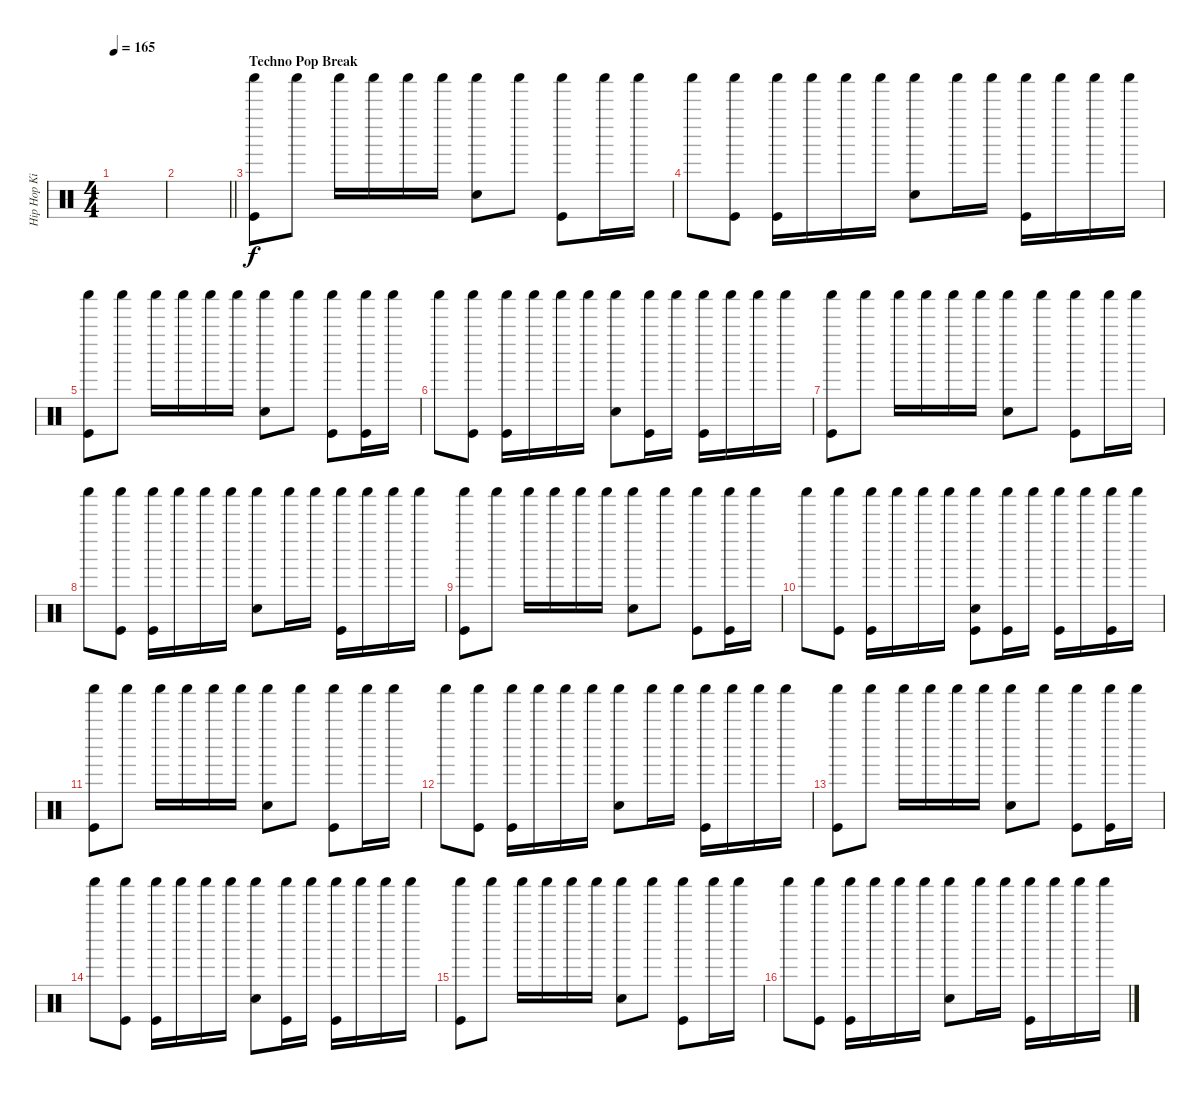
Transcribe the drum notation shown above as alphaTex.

\track ("Hip Hop Kit" "Hip Hop Ki") {instrument percussion}
\staff {score}
\articulation defaults
\ts (4 4)
\tempo 165
\clef neutral
\ks c
|
\barLineRight lightlight
|
\section ("" "Techno Pop Break")
("Shaker (hit)" "Kick (hit)").8 "Shaker (hit)".8 "Shaker (hit)".16 "Shaker (hit)".16 "Shaker (hit)".16 "Shaker (hit)".16 ("Shaker (hit)" "Snare (hit) 2").8 "Shaker (hit)".8 ("Shaker (hit)" "Kick (hit)").8 "Shaker (hit)".16 "Shaker (hit)".16 |
"Shaker (hit)".8 ("Shaker (hit)" "Kick (hit)").8 ("Shaker (hit)" "Kick (hit)").16 "Shaker (hit)".16 "Shaker (hit)".16 "Shaker (hit)".16 ("Shaker (hit)" "Snare (hit) 2").8 "Shaker (hit)".16 "Shaker (hit)".16 ("Shaker (hit)" "Kick (hit)").16 "Shaker (hit)".16 "Shaker (hit)".16 "Shaker (hit)".16 |
("Shaker (hit)" "Kick (hit)").8 "Shaker (hit)".8 "Shaker (hit)".16 "Shaker (hit)".16 "Shaker (hit)".16 "Shaker (hit)".16 ("Shaker (hit)" "Snare (hit) 2").8 "Shaker (hit)".8 ("Shaker (hit)" "Kick (hit)").8 ("Shaker (hit)" "Kick (hit)").16 "Shaker (hit)".16 |
"Shaker (hit)".8 ("Shaker (hit)" "Kick (hit)").8 ("Shaker (hit)" "Kick (hit)").16 "Shaker (hit)".16 "Shaker (hit)".16 "Shaker (hit)".16 ("Shaker (hit)" "Snare (hit) 2").8 ("Shaker (hit)" "Kick (hit)").16 "Shaker (hit)".16 ("Shaker (hit)" "Kick (hit)").16 "Shaker (hit)".16 "Shaker (hit)".16 "Shaker (hit)".16 |
("Shaker (hit)" "Kick (hit)").8 "Shaker (hit)".8 "Shaker (hit)".16 "Shaker (hit)".16 "Shaker (hit)".16 "Shaker (hit)".16 ("Shaker (hit)" "Snare (hit) 2").8 "Shaker (hit)".8 ("Shaker (hit)" "Kick (hit)").8 "Shaker (hit)".16 "Shaker (hit)".16 |
"Shaker (hit)".8 ("Shaker (hit)" "Kick (hit)").8 ("Shaker (hit)" "Kick (hit)").16 "Shaker (hit)".16 "Shaker (hit)".16 "Shaker (hit)".16 ("Shaker (hit)" "Snare (hit) 2").8 "Shaker (hit)".16 "Shaker (hit)".16 ("Shaker (hit)" "Kick (hit)").16 "Shaker (hit)".16 "Shaker (hit)".16 "Shaker (hit)".16 |
("Shaker (hit)" "Kick (hit)").8 "Shaker (hit)".8 "Shaker (hit)".16 "Shaker (hit)".16 "Shaker (hit)".16 "Shaker (hit)".16 ("Shaker (hit)" "Snare (hit) 2").8 "Shaker (hit)".8 ("Shaker (hit)" "Kick (hit)").8 ("Shaker (hit)" "Kick (hit)").16 "Shaker (hit)".16 |
"Shaker (hit)".8 ("Shaker (hit)" "Kick (hit)").8 ("Shaker (hit)" "Kick (hit)").16 "Shaker (hit)".16 "Shaker (hit)".16 "Shaker (hit)".16 ("Shaker (hit)" "Snare (hit) 2" "Kick (hit)").8 ("Shaker (hit)" "Kick (hit)").16 "Shaker (hit)".16 ("Shaker (hit)" "Kick (hit)").16 "Shaker (hit)".16 ("Shaker (hit)" "Kick (hit)").16 "Shaker (hit)".16 |
("Shaker (hit)" "Kick (hit)").8 "Shaker (hit)".8 "Shaker (hit)".16 "Shaker (hit)".16 "Shaker (hit)".16 "Shaker (hit)".16 ("Shaker (hit)" "Snare (hit) 2").8 "Shaker (hit)".8 ("Shaker (hit)" "Kick (hit)").8 "Shaker (hit)".16 "Shaker (hit)".16 |
"Shaker (hit)".8 ("Shaker (hit)" "Kick (hit)").8 ("Shaker (hit)" "Kick (hit)").16 "Shaker (hit)".16 "Shaker (hit)".16 "Shaker (hit)".16 ("Shaker (hit)" "Snare (hit) 2").8 "Shaker (hit)".16 "Shaker (hit)".16 ("Shaker (hit)" "Kick (hit)").16 "Shaker (hit)".16 "Shaker (hit)".16 "Shaker (hit)".16 |
("Shaker (hit)" "Kick (hit)").8 "Shaker (hit)".8 "Shaker (hit)".16 "Shaker (hit)".16 "Shaker (hit)".16 "Shaker (hit)".16 ("Shaker (hit)" "Snare (hit) 2").8 "Shaker (hit)".8 ("Shaker (hit)" "Kick (hit)").8 ("Shaker (hit)" "Kick (hit)").16 "Shaker (hit)".16 |
"Shaker (hit)".8 ("Shaker (hit)" "Kick (hit)").8 ("Shaker (hit)" "Kick (hit)").16 "Shaker (hit)".16 "Shaker (hit)".16 "Shaker (hit)".16 ("Shaker (hit)" "Snare (hit) 2").8 ("Shaker (hit)" "Kick (hit)").16 "Shaker (hit)".16 ("Shaker (hit)" "Kick (hit)").16 "Shaker (hit)".16 "Shaker (hit)".16 "Shaker (hit)".16 |
("Shaker (hit)" "Kick (hit)").8 "Shaker (hit)".8 "Shaker (hit)".16 "Shaker (hit)".16 "Shaker (hit)".16 "Shaker (hit)".16 ("Shaker (hit)" "Snare (hit) 2").8 "Shaker (hit)".8 ("Shaker (hit)" "Kick (hit)").8 "Shaker (hit)".16 "Shaker (hit)".16 |
"Shaker (hit)".8 ("Shaker (hit)" "Kick (hit)").8 ("Shaker (hit)" "Kick (hit)").16 "Shaker (hit)".16 "Shaker (hit)".16 "Shaker (hit)".16 ("Shaker (hit)" "Snare (hit) 2").8 "Shaker (hit)".16 "Shaker (hit)".16 ("Shaker (hit)" "Kick (hit)").16 "Shaker (hit)".16 "Shaker (hit)".16 "Shaker (hit)".16
